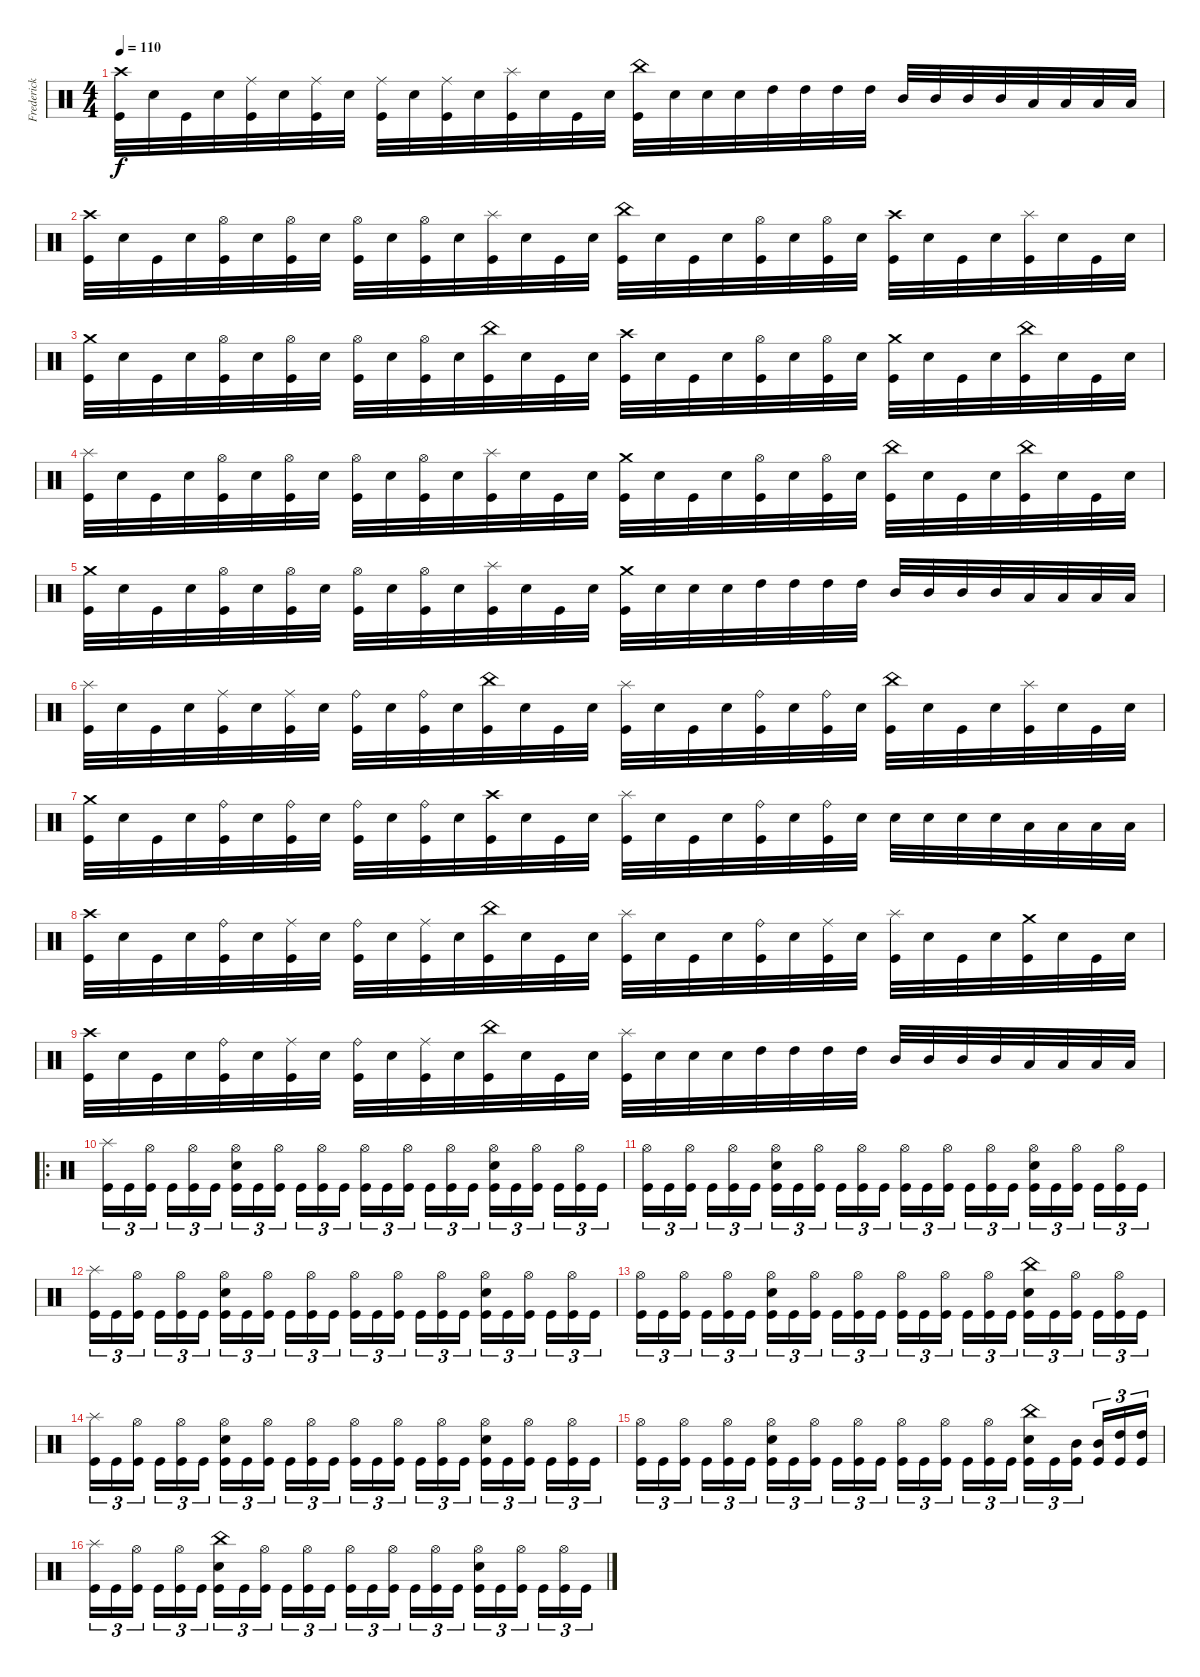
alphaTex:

\track ("Frederick" "Frederick") {instrument percussion}
\staff {score}
\articulation defaults
\ts (4 4)
\tempo 110
\clef neutral
\ks c
("Crash high (hit)" "Kick (hit)").32{dy f} "Electric Snare (hit)".32 "Kick (hit)".32 "Electric Snare (hit)".32 ("Ride (middle)" "Kick (hit)").32 "Electric Snare (hit)".32 ("Ride (middle)" "Kick (hit)").32 "Electric Snare (hit)".32 ("Ride (middle)" "Kick (hit)").32 "Electric Snare (hit)".32 ("Ride (middle)" "Kick (hit)").32 "Electric Snare (hit)".32 ("Splash (hit)" "Kick (hit)").32 "Electric Snare (hit)".32 "Kick (hit)".32 "Electric Snare (hit)".32 ("China (hit)" "Kick (hit)").32 "Electric Snare (hit)".32 "Electric Snare (hit)".32 "Electric Snare (hit)".32 "High Tom (hit)".32 "High Tom (hit)".32 "High Tom (hit)".32 "High Tom (hit)".32 "Mid Tom (hit)".32 "Mid Tom (hit)".32 "Mid Tom (hit)".32 "Mid Tom (hit)".32 "Low Tom (hit)".32 "Low Tom (hit)".32 "Low Tom (hit)".32 "Low Tom (hit)".32 |
("Crash high (hit)" "Kick (hit)").32 "Electric Snare (hit)".32 "Kick (hit)".32 "Electric Snare (hit)".32 ("Hi-Hat (open)" "Kick (hit)").32 "Electric Snare (hit)".32 ("Hi-Hat (open)" "Kick (hit)").32 "Electric Snare (hit)".32 ("Hi-Hat (open)" "Kick (hit)").32 "Electric Snare (hit)".32 ("Hi-Hat (open)" "Kick (hit)").32 "Electric Snare (hit)".32 ("Splash (hit)" "Kick (hit)").32 "Electric Snare (hit)".32 "Kick (hit)".32 "Electric Snare (hit)".32 ("China (hit)" "Kick (hit)").32 "Electric Snare (hit)".32 "Kick (hit)".32 "Electric Snare (hit)".32 ("Hi-Hat (open)" "Kick (hit)").32 "Electric Snare (hit)".32 ("Hi-Hat (open)" "Kick (hit)").32 "Electric Snare (hit)".32 ("Crash high (hit)" "Kick (hit)").32 "Electric Snare (hit)".32 "Kick (hit)".32 "Electric Snare (hit)".32 ("Splash (hit)" "Kick (hit)").32 "Electric Snare (hit)".32 "Kick (hit)".32 "Electric Snare (hit)".32 |
("Crash medium (hit)" "Kick (hit)").32 "Electric Snare (hit)".32 "Kick (hit)".32 "Electric Snare (hit)".32 ("Hi-Hat (open)" "Kick (hit)").32 "Electric Snare (hit)".32 ("Hi-Hat (open)" "Kick (hit)").32 "Electric Snare (hit)".32 ("Hi-Hat (open)" "Kick (hit)").32 "Electric Snare (hit)".32 ("Hi-Hat (open)" "Kick (hit)").32 "Electric Snare (hit)".32 ("China (hit)" "Kick (hit)").32 "Electric Snare (hit)".32 "Kick (hit)".32 "Electric Snare (hit)".32 ("Crash high (hit)" "Kick (hit)").32 "Electric Snare (hit)".32 "Kick (hit)".32 "Electric Snare (hit)".32 ("Hi-Hat (open)" "Kick (hit)").32 "Electric Snare (hit)".32 ("Hi-Hat (open)" "Kick (hit)").32 "Electric Snare (hit)".32 ("Crash medium (hit)" "Kick (hit)").32 "Electric Snare (hit)".32 "Kick (hit)".32 "Electric Snare (hit)".32 ("China (hit)" "Kick (hit)").32 "Electric Snare (hit)".32 "Kick (hit)".32 "Electric Snare (hit)".32 |
("Splash (hit)" "Kick (hit)").32 "Electric Snare (hit)".32 "Kick (hit)".32 "Electric Snare (hit)".32 ("Hi-Hat (open)" "Kick (hit)").32 "Electric Snare (hit)".32 ("Hi-Hat (open)" "Kick (hit)").32 "Electric Snare (hit)".32 ("Hi-Hat (open)" "Kick (hit)").32 "Electric Snare (hit)".32 ("Hi-Hat (open)" "Kick (hit)").32 "Electric Snare (hit)".32 ("Splash (hit)" "Kick (hit)").32 "Electric Snare (hit)".32 "Kick (hit)".32 "Electric Snare (hit)".32 ("Crash medium (hit)" "Kick (hit)").32 "Electric Snare (hit)".32 "Kick (hit)".32 "Electric Snare (hit)".32 ("Hi-Hat (open)" "Kick (hit)").32 "Electric Snare (hit)".32 ("Hi-Hat (open)" "Kick (hit)").32 "Electric Snare (hit)".32 ("China (hit)" "Kick (hit)").32 "Electric Snare (hit)".32 "Kick (hit)".32 "Electric Snare (hit)".32 ("China (hit)" "Kick (hit)").32 "Electric Snare (hit)".32 "Kick (hit)".32 "Electric Snare (hit)".32 |
("Crash medium (hit)" "Kick (hit)").32 "Electric Snare (hit)".32 "Kick (hit)".32 "Electric Snare (hit)".32 ("Hi-Hat (open)" "Kick (hit)").32 "Electric Snare (hit)".32 ("Hi-Hat (open)" "Kick (hit)").32 "Electric Snare (hit)".32 ("Hi-Hat (open)" "Kick (hit)").32 "Electric Snare (hit)".32 ("Hi-Hat (open)" "Kick (hit)").32 "Electric Snare (hit)".32 ("Splash (hit)" "Kick (hit)").32 "Electric Snare (hit)".32 "Kick (hit)".32 "Electric Snare (hit)".32 ("Crash medium (hit)" "Kick (hit)").32 "Electric Snare (hit)".32 "Electric Snare (hit)".32 "Electric Snare (hit)".32 "High Tom (hit)".32 "High Tom (hit)".32 "High Tom (hit)".32 "High Tom (hit)".32 "Mid Tom (hit)".32 "Mid Tom (hit)".32 "Mid Tom (hit)".32 "Mid Tom (hit)".32 "Low Tom (hit)".32 "Low Tom (hit)".32 "Low Tom (hit)".32 "Low Tom (hit)".32 |
("Splash (hit)" "Kick (hit)").32 "Electric Snare (hit)".32 "Kick (hit)".32 "Electric Snare (hit)".32 ("Ride (middle)" "Kick (hit)").32 "Electric Snare (hit)".32 ("Ride (middle)" "Kick (hit)").32 "Electric Snare (hit)".32 ("Ride (bell)" "Kick (hit)").32 "Electric Snare (hit)".32 ("Ride (bell)" "Kick (hit)").32 "Electric Snare (hit)".32 ("China (hit)" "Kick (hit)").32 "Electric Snare (hit)".32 "Kick (hit)".32 "Electric Snare (hit)".32 ("Splash (hit)" "Kick (hit)").32 "Electric Snare (hit)".32 "Kick (hit)".32 "Electric Snare (hit)".32 ("Ride (bell)" "Kick (hit)").32 "Electric Snare (hit)".32 ("Ride (bell)" "Kick (hit)").32 "Electric Snare (hit)".32 ("China (hit)" "Kick (hit)").32 "Electric Snare (hit)".32 "Kick (hit)".32 "Electric Snare (hit)".32 ("Splash (hit)" "Kick (hit)").32 "Electric Snare (hit)".32 "Kick (hit)".32 "Electric Snare (hit)".32 |
("Crash medium (hit)" "Kick (hit)").32 "Electric Snare (hit)".32 "Kick (hit)".32 "Electric Snare (hit)".32 ("Ride (bell)" "Kick (hit)").32 "Electric Snare (hit)".32 ("Ride (bell)" "Kick (hit)").32 "Electric Snare (hit)".32 ("Ride (bell)" "Kick (hit)").32 "Electric Snare (hit)".32 ("Ride (bell)" "Kick (hit)").32 "Electric Snare (hit)".32 ("Crash high (hit)" "Kick (hit)").32 "Electric Snare (hit)".32 "Kick (hit)".32 "Electric Snare (hit)".32 ("Splash (hit)" "Kick (hit)").32 "Electric Snare (hit)".32 "Kick (hit)".32 "Electric Snare (hit)".32 ("Ride (bell)" "Kick (hit)").32 "Electric Snare (hit)".32 ("Ride (bell)" "Kick (hit)").32 "Electric Snare (hit)".32 "Electric Snare (hit)".32 "Electric Snare (hit)".32 "Electric Snare (hit)".32 "Electric Snare (hit)".32 "Low Tom (hit)".32 "Low Tom (hit)".32 "Low Tom (hit)".32 "Low Tom (hit)".32 |
("Crash high (hit)" "Kick (hit)").32 "Electric Snare (hit)".32 "Kick (hit)".32 "Electric Snare (hit)".32 ("Ride (bell)" "Kick (hit)").32 "Electric Snare (hit)".32 ("Ride (middle)" "Kick (hit)").32 "Electric Snare (hit)".32 ("Ride (bell)" "Kick (hit)").32 "Electric Snare (hit)".32 ("Ride (middle)" "Kick (hit)").32 "Electric Snare (hit)".32 ("China (hit)" "Kick (hit)").32 "Electric Snare (hit)".32 "Kick (hit)".32 "Electric Snare (hit)".32 ("Splash (hit)" "Kick (hit)").32 "Electric Snare (hit)".32 "Kick (hit)".32 "Electric Snare (hit)".32 ("Ride (bell)" "Kick (hit)").32 "Electric Snare (hit)".32 ("Ride (middle)" "Kick (hit)").32 "Electric Snare (hit)".32 ("Splash (hit)" "Kick (hit)").32 "Electric Snare (hit)".32 "Kick (hit)".32 "Electric Snare (hit)".32 ("Crash medium (hit)" "Kick (hit)").32 "Electric Snare (hit)".32 "Kick (hit)".32 "Electric Snare (hit)".32 |
("Crash high (hit)" "Kick (hit)").32 "Electric Snare (hit)".32 "Kick (hit)".32 "Electric Snare (hit)".32 ("Ride (bell)" "Kick (hit)").32 "Electric Snare (hit)".32 ("Ride (middle)" "Kick (hit)").32 "Electric Snare (hit)".32 ("Ride (bell)" "Kick (hit)").32 "Electric Snare (hit)".32 ("Ride (middle)" "Kick (hit)").32 "Electric Snare (hit)".32 ("China (hit)" "Kick (hit)").32 "Electric Snare (hit)".32 "Kick (hit)".32 "Electric Snare (hit)".32 ("Splash (hit)" "Kick (hit)").32 "Electric Snare (hit)".32 "Electric Snare (hit)".32 "Electric Snare (hit)".32 "High Tom (hit)".32 "High Tom (hit)".32 "High Tom (hit)".32 "High Tom (hit)".32 "Mid Tom (hit)".32 "Mid Tom (hit)".32 "Mid Tom (hit)".32 "Mid Tom (hit)".32 "Low Tom (hit)".32 "Low Tom (hit)".32 "Low Tom (hit)".32 "Low Tom (hit)".32 |
\ro
("Splash (hit)" "Kick (hit)").16{tu (3 2)} "Kick (hit)".16{tu (3 2)} ("Hi-Hat (open)" "Kick (hit)").16{tu (3 2)} "Kick (hit)".16{tu (3 2)} ("Hi-Hat (open)" "Kick (hit)").16{tu (3 2)} "Kick (hit)".16{tu (3 2)} ("Hi-Hat (open)" "Electric Snare (hit)" "Kick (hit)").16{tu (3 2)} "Kick (hit)".16{tu (3 2)} ("Hi-Hat (open)" "Kick (hit)").16{tu (3 2)} "Kick (hit)".16{tu (3 2)} ("Hi-Hat (open)" "Kick (hit)").16{tu (3 2)} "Kick (hit)".16{tu (3 2)} ("Hi-Hat (open)" "Kick (hit)").16{tu (3 2)} "Kick (hit)".16{tu (3 2)} ("Hi-Hat (open)" "Kick (hit)").16{tu (3 2)} "Kick (hit)".16{tu (3 2)} ("Hi-Hat (open)" "Kick (hit)").16{tu (3 2)} "Kick (hit)".16{tu (3 2)} ("Hi-Hat (open)" "Electric Snare (hit)" "Kick (hit)").16{tu (3 2)} "Kick (hit)".16{tu (3 2)} ("Hi-Hat (open)" "Kick (hit)").16{tu (3 2)} "Kick (hit)".16{tu (3 2)} ("Hi-Hat (open)" "Kick (hit)").16{tu (3 2)} "Kick (hit)".16{tu (3 2)} |
("Hi-Hat (open)" "Kick (hit)").16{tu (3 2)} "Kick (hit)".16{tu (3 2)} ("Hi-Hat (open)" "Kick (hit)").16{tu (3 2)} "Kick (hit)".16{tu (3 2)} ("Hi-Hat (open)" "Kick (hit)").16{tu (3 2)} "Kick (hit)".16{tu (3 2)} ("Hi-Hat (open)" "Electric Snare (hit)" "Kick (hit)").16{tu (3 2)} "Kick (hit)".16{tu (3 2)} ("Hi-Hat (open)" "Kick (hit)").16{tu (3 2)} "Kick (hit)".16{tu (3 2)} ("Hi-Hat (open)" "Kick (hit)").16{tu (3 2)} "Kick (hit)".16{tu (3 2)} ("Hi-Hat (open)" "Kick (hit)").16{tu (3 2)} "Kick (hit)".16{tu (3 2)} ("Hi-Hat (open)" "Kick (hit)").16{tu (3 2)} "Kick (hit)".16{tu (3 2)} ("Hi-Hat (open)" "Kick (hit)").16{tu (3 2)} "Kick (hit)".16{tu (3 2)} ("Hi-Hat (open)" "Electric Snare (hit)" "Kick (hit)").16{tu (3 2)} "Kick (hit)".16{tu (3 2)} ("Hi-Hat (open)" "Kick (hit)").16{tu (3 2)} "Kick (hit)".16{tu (3 2)} ("Hi-Hat (open)" "Kick (hit)").16{tu (3 2)} "Kick (hit)".16{tu (3 2)} |
("Splash (hit)" "Kick (hit)").16{tu (3 2)} "Kick (hit)".16{tu (3 2)} ("Hi-Hat (open)" "Kick (hit)").16{tu (3 2)} "Kick (hit)".16{tu (3 2)} ("Hi-Hat (open)" "Kick (hit)").16{tu (3 2)} "Kick (hit)".16{tu (3 2)} ("Hi-Hat (open)" "Electric Snare (hit)" "Kick (hit)").16{tu (3 2)} "Kick (hit)".16{tu (3 2)} ("Hi-Hat (open)" "Kick (hit)").16{tu (3 2)} "Kick (hit)".16{tu (3 2)} ("Hi-Hat (open)" "Kick (hit)").16{tu (3 2)} "Kick (hit)".16{tu (3 2)} ("Hi-Hat (open)" "Kick (hit)").16{tu (3 2)} "Kick (hit)".16{tu (3 2)} ("Hi-Hat (open)" "Kick (hit)").16{tu (3 2)} "Kick (hit)".16{tu (3 2)} ("Hi-Hat (open)" "Kick (hit)").16{tu (3 2)} "Kick (hit)".16{tu (3 2)} ("Hi-Hat (open)" "Electric Snare (hit)" "Kick (hit)").16{tu (3 2)} "Kick (hit)".16{tu (3 2)} ("Hi-Hat (open)" "Kick (hit)").16{tu (3 2)} "Kick (hit)".16{tu (3 2)} ("Hi-Hat (open)" "Kick (hit)").16{tu (3 2)} "Kick (hit)".16{tu (3 2)} |
("Hi-Hat (open)" "Kick (hit)").16{tu (3 2)} "Kick (hit)".16{tu (3 2)} ("Hi-Hat (open)" "Kick (hit)").16{tu (3 2)} "Kick (hit)".16{tu (3 2)} ("Hi-Hat (open)" "Kick (hit)").16{tu (3 2)} "Kick (hit)".16{tu (3 2)} ("Hi-Hat (open)" "Electric Snare (hit)" "Kick (hit)").16{tu (3 2)} "Kick (hit)".16{tu (3 2)} ("Hi-Hat (open)" "Kick (hit)").16{tu (3 2)} "Kick (hit)".16{tu (3 2)} ("Hi-Hat (open)" "Kick (hit)").16{tu (3 2)} "Kick (hit)".16{tu (3 2)} ("Hi-Hat (open)" "Kick (hit)").16{tu (3 2)} "Kick (hit)".16{tu (3 2)} ("Hi-Hat (open)" "Kick (hit)").16{tu (3 2)} "Kick (hit)".16{tu (3 2)} ("Hi-Hat (open)" "Kick (hit)").16{tu (3 2)} "Kick (hit)".16{tu (3 2)} ("China (hit)" "Electric Snare (hit)" "Kick (hit)").16{tu (3 2)} "Kick (hit)".16{tu (3 2)} ("Hi-Hat (open)" "Kick (hit)").16{tu (3 2)} "Kick (hit)".16{tu (3 2)} ("Hi-Hat (open)" "Kick (hit)").16{tu (3 2)} "Kick (hit)".16{tu (3 2)} |
("Splash (hit)" "Kick (hit)").16{tu (3 2)} "Kick (hit)".16{tu (3 2)} ("Hi-Hat (open)" "Kick (hit)").16{tu (3 2)} "Kick (hit)".16{tu (3 2)} ("Hi-Hat (open)" "Kick (hit)").16{tu (3 2)} "Kick (hit)".16{tu (3 2)} ("Hi-Hat (open)" "Electric Snare (hit)" "Kick (hit)").16{tu (3 2)} "Kick (hit)".16{tu (3 2)} ("Hi-Hat (open)" "Kick (hit)").16{tu (3 2)} "Kick (hit)".16{tu (3 2)} ("Hi-Hat (open)" "Kick (hit)").16{tu (3 2)} "Kick (hit)".16{tu (3 2)} ("Hi-Hat (open)" "Kick (hit)").16{tu (3 2)} "Kick (hit)".16{tu (3 2)} ("Hi-Hat (open)" "Kick (hit)").16{tu (3 2)} "Kick (hit)".16{tu (3 2)} ("Hi-Hat (open)" "Kick (hit)").16{tu (3 2)} "Kick (hit)".16{tu (3 2)} ("Hi-Hat (open)" "Electric Snare (hit)" "Kick (hit)").16{tu (3 2)} "Kick (hit)".16{tu (3 2)} ("Hi-Hat (open)" "Kick (hit)").16{tu (3 2)} "Kick (hit)".16{tu (3 2)} ("Hi-Hat (open)" "Kick (hit)").16{tu (3 2)} "Kick (hit)".16{tu (3 2)} |
("Hi-Hat (open)" "Kick (hit)").16{tu (3 2)} "Kick (hit)".16{tu (3 2)} ("Hi-Hat (open)" "Kick (hit)").16{tu (3 2)} "Kick (hit)".16{tu (3 2)} ("Hi-Hat (open)" "Kick (hit)").16{tu (3 2)} "Kick (hit)".16{tu (3 2)} ("Hi-Hat (open)" "Electric Snare (hit)" "Kick (hit)").16{tu (3 2)} "Kick (hit)".16{tu (3 2)} ("Hi-Hat (open)" "Kick (hit)").16{tu (3 2)} "Kick (hit)".16{tu (3 2)} ("Hi-Hat (open)" "Kick (hit)").16{tu (3 2)} "Kick (hit)".16{tu (3 2)} ("Hi-Hat (open)" "Kick (hit)").16{tu (3 2)} "Kick (hit)".16{tu (3 2)} ("Hi-Hat (open)" "Kick (hit)").16{tu (3 2)} "Kick (hit)".16{tu (3 2)} ("Hi-Hat (open)" "Kick (hit)").16{tu (3 2)} "Kick (hit)".16{tu (3 2)} ("China (hit)" "Electric Snare (hit)" "Kick (hit)").16{tu (3 2)} "Kick (hit)".16{tu (3 2)} ("Mid Tom (hit)" "Kick (hit)").16{tu (3 2)} ("Mid Tom (hit)" "Kick (hit)").16{tu (3 2)} ("High Tom (hit)" "Kick (hit)").16{tu (3 2)} ("High Tom (hit)" "Kick (hit)").16{tu (3 2)} |
("Splash (hit)" "Kick (hit)").16{tu (3 2)} "Kick (hit)".16{tu (3 2)} ("Hi-Hat (open)" "Kick (hit)").16{tu (3 2)} "Kick (hit)".16{tu (3 2)} ("Hi-Hat (open)" "Kick (hit)").16{tu (3 2)} "Kick (hit)".16{tu (3 2)} ("China (hit)" "Electric Snare (hit)" "Kick (hit)").16{tu (3 2)} "Kick (hit)".16{tu (3 2)} ("Hi-Hat (open)" "Kick (hit)").16{tu (3 2)} "Kick (hit)".16{tu (3 2)} ("Hi-Hat (open)" "Kick (hit)").16{tu (3 2)} "Kick (hit)".16{tu (3 2)} ("Hi-Hat (open)" "Kick (hit)").16{tu (3 2)} "Kick (hit)".16{tu (3 2)} ("Hi-Hat (open)" "Kick (hit)").16{tu (3 2)} "Kick (hit)".16{tu (3 2)} ("Hi-Hat (open)" "Kick (hit)").16{tu (3 2)} "Kick (hit)".16{tu (3 2)} ("Hi-Hat (open)" "Electric Snare (hit)" "Kick (hit)").16{tu (3 2)} "Kick (hit)".16{tu (3 2)} ("Hi-Hat (open)" "Kick (hit)").16{tu (3 2)} "Kick (hit)".16{tu (3 2)} ("Hi-Hat (open)" "Kick (hit)").16{tu (3 2)} "Kick (hit)".16{tu (3 2)}
